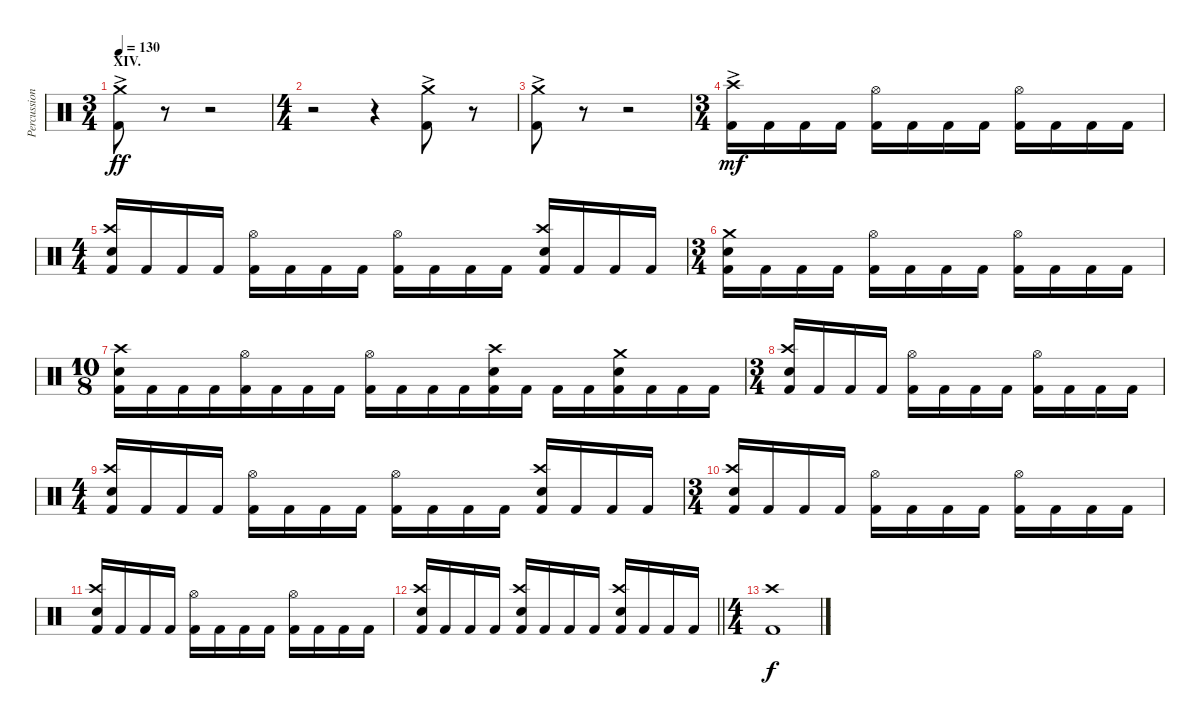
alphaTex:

\track ("Percussion" "Percussion") {instrument percussion}
\staff {score}
\articulation defaults
\ts (3 4)
\section ("" "XIV.")
\tempo 130
\clef neutral
\ks c
("Crash medium (hit)" "Kick (hit) 2"{ac}).8{dy ff} r.8{volume 0} r.2 |
\ts (4 4)
r.2 r.4 ("Crash medium (hit)" "Kick (hit) 2"{ac}).8{volume 12} r.8{volume 0} |
("Crash medium (hit)" "Kick (hit) 2"{ac}).8{volume 12} r.8{volume 0} r.2 |
\ts (3 4)
("Crash high (hit)" "Kick (hit) 2"{ac}).16{dy mf volume 12} "Kick (hit) 2".16 "Kick (hit) 2".16 "Kick (hit) 2".16 ("Hi-Hat (open)" "Kick (hit) 2").16 "Kick (hit) 2".16 "Kick (hit) 2".16 "Kick (hit) 2".16 ("Hi-Hat (open)" "Kick (hit) 2").16 "Kick (hit) 2".16 "Kick (hit) 2".16 "Kick (hit) 2".16 |
\ts (4 4)
("Crash high (hit)" "Electric Snare (hit)" "Kick (hit) 2").16 "Kick (hit) 2".16 "Kick (hit) 2".16 "Kick (hit) 2".16 ("Hi-Hat (open)" "Kick (hit) 2").16 "Kick (hit) 2".16 "Kick (hit) 2".16 "Kick (hit) 2".16 ("Hi-Hat (open)" "Kick (hit) 2").16 "Kick (hit) 2".16 "Kick (hit) 2".16 "Kick (hit) 2".16 ("Crash high (hit)" "Electric Snare (hit)" "Kick (hit) 2").16 "Kick (hit) 2".16 "Kick (hit) 2".16 "Kick (hit) 2".16 |
\ts (3 4)
("Crash medium (hit)" "Electric Snare (hit)" "Kick (hit) 2").16 "Kick (hit) 2".16 "Kick (hit) 2".16 "Kick (hit) 2".16 ("Hi-Hat (open)" "Kick (hit) 2").16 "Kick (hit) 2".16 "Kick (hit) 2".16 "Kick (hit) 2".16 ("Hi-Hat (open)" "Kick (hit) 2").16 "Kick (hit) 2".16 "Kick (hit) 2".16 "Kick (hit) 2".16 |
\ts (10 8)
("Crash high (hit)" "Electric Snare (hit)" "Kick (hit) 2").16 "Kick (hit) 2".16 "Kick (hit) 2".16 "Kick (hit) 2".16 ("Hi-Hat (open)" "Kick (hit) 2").16 "Kick (hit) 2".16 "Kick (hit) 2".16 "Kick (hit) 2".16 ("Hi-Hat (open)" "Kick (hit) 2").16 "Kick (hit) 2".16 "Kick (hit) 2".16 "Kick (hit) 2".16 ("Crash high (hit)" "Electric Snare (hit)" "Kick (hit) 2").16 "Kick (hit) 2".16 "Kick (hit) 2".16 "Kick (hit) 2".16 ("Crash medium (hit)" "Electric Snare (hit)" "Kick (hit) 2").16 "Kick (hit) 2".16 "Kick (hit) 2".16 "Kick (hit) 2".16 |
\ts (3 4)
("Crash high (hit)" "Electric Snare (hit)" "Kick (hit) 2").16 "Kick (hit) 2".16 "Kick (hit) 2".16 "Kick (hit) 2".16 ("Hi-Hat (open)" "Kick (hit) 2").16 "Kick (hit) 2".16 "Kick (hit) 2".16 "Kick (hit) 2".16 ("Hi-Hat (open)" "Kick (hit) 2").16 "Kick (hit) 2".16 "Kick (hit) 2".16 "Kick (hit) 2".16 |
\ts (4 4)
("Crash high (hit)" "Electric Snare (hit)" "Kick (hit) 2").16 "Kick (hit) 2".16 "Kick (hit) 2".16 "Kick (hit) 2".16 ("Hi-Hat (open)" "Kick (hit) 2").16 "Kick (hit) 2".16 "Kick (hit) 2".16 "Kick (hit) 2".16 ("Hi-Hat (open)" "Kick (hit) 2").16 "Kick (hit) 2".16 "Kick (hit) 2".16 "Kick (hit) 2".16 ("Crash high (hit)" "Electric Snare (hit)" "Kick (hit) 2").16 "Kick (hit) 2".16 "Kick (hit) 2".16 "Kick (hit) 2".16 |
\ts (3 4)
("Crash high (hit)" "Electric Snare (hit)" "Kick (hit) 2").16 "Kick (hit) 2".16 "Kick (hit) 2".16 "Kick (hit) 2".16 ("Hi-Hat (open)" "Kick (hit) 2").16 "Kick (hit) 2".16 "Kick (hit) 2".16 "Kick (hit) 2".16 ("Hi-Hat (open)" "Kick (hit) 2").16 "Kick (hit) 2".16 "Kick (hit) 2".16 "Kick (hit) 2".16 |
("Crash high (hit)" "Electric Snare (hit)" "Kick (hit) 2").16 "Kick (hit) 2".16 "Kick (hit) 2".16 "Kick (hit) 2".16 ("Hi-Hat (open)" "Kick (hit) 2").16 "Kick (hit) 2".16 "Kick (hit) 2".16 "Kick (hit) 2".16 ("Hi-Hat (open)" "Kick (hit) 2").16 "Kick (hit) 2".16 "Kick (hit) 2".16 "Kick (hit) 2".16 |
\barLineRight lightlight
("Crash high (hit)" "Electric Snare (hit)" "Kick (hit) 2").16 "Kick (hit) 2".16 "Kick (hit) 2".16 "Kick (hit) 2".16 ("Crash high (hit)" "Electric Snare (hit)" "Kick (hit) 2").16 "Kick (hit) 2".16 "Kick (hit) 2".16 "Kick (hit) 2".16 ("Crash high (hit)" "Electric Snare (hit)" "Kick (hit) 2").16 "Kick (hit) 2".16 "Kick (hit) 2".16 "Kick (hit) 2".16 |
\ts (4 4)
("Crash high (hit)" "Kick (hit) 2").1{dy f}
